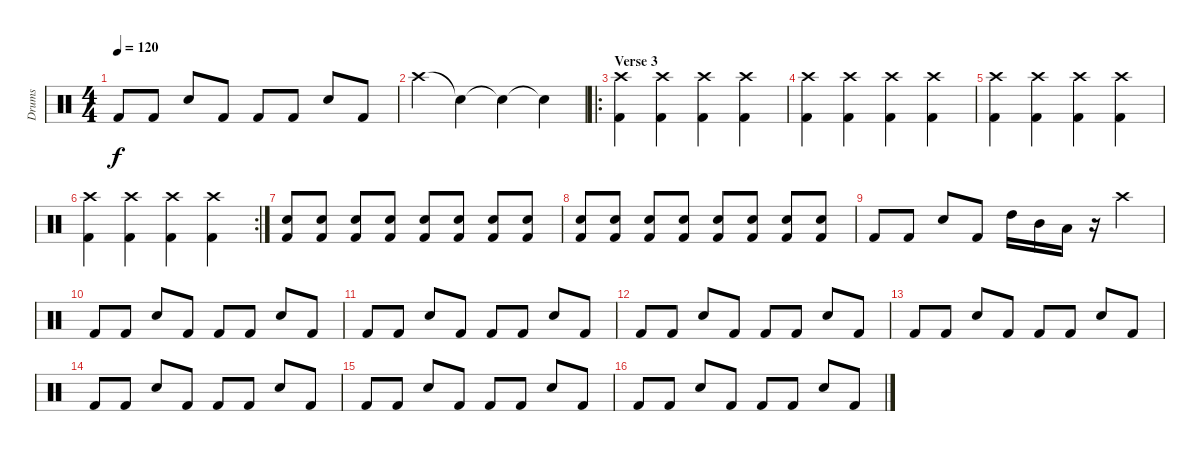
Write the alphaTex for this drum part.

\track ("Drums" "Drums") {instrument percussion}
\staff {score}
\articulation defaults
\ts (4 4)
\tempo 120
\clef neutral
\ks c "Kick (hit) 2".8{dy f} "Kick (hit) 2".8 "Snare (hit) 2".8 "Kick (hit) 2".8 "Kick (hit) 2".8 "Kick (hit) 2".8 "Snare (hit) 2".8 "Kick (hit) 2".8
|
"Crash high (hit)".4 "Snare (hit)"{t}.4 "Snare (hit)"{t}.4 "Snare (hit)"{t}.4 |
\ro
\section ("" "Verse 3")
("Kick (hit) 2" "Crash high (hit)").4 ("Kick (hit) 2" "Crash high (hit)").4 ("Kick (hit) 2" "Crash high (hit)").4 ("Kick (hit) 2" "Crash high (hit)").4 |
("Kick (hit) 2" "Crash high (hit)").4 ("Kick (hit) 2" "Crash high (hit)").4 ("Kick (hit) 2" "Crash high (hit)").4 ("Kick (hit) 2" "Crash high (hit)").4 |
("Kick (hit) 2" "Crash high (hit)").4 ("Kick (hit) 2" "Crash high (hit)").4 ("Kick (hit) 2" "Crash high (hit)").4 ("Kick (hit) 2" "Crash high (hit)").4 |
\rc 2
("Kick (hit) 2" "Crash high (hit)").4 ("Kick (hit) 2" "Crash high (hit)").4 ("Kick (hit) 2" "Crash high (hit)").4 ("Kick (hit) 2" "Crash high (hit)").4 |
("Kick (hit) 2" "Snare (hit) 2").8 ("Kick (hit) 2" "Snare (hit) 2").8 ("Kick (hit) 2" "Snare (hit) 2").8 ("Kick (hit) 2" "Snare (hit) 2").8 ("Kick (hit) 2" "Snare (hit) 2").8 ("Kick (hit) 2" "Snare (hit) 2").8 ("Kick (hit) 2" "Snare (hit) 2").8 ("Kick (hit) 2" "Snare (hit) 2").8 |
("Kick (hit) 2" "Snare (hit) 2").8 ("Kick (hit) 2" "Snare (hit) 2").8 ("Kick (hit) 2" "Snare (hit) 2").8 ("Kick (hit) 2" "Snare (hit) 2").8 ("Kick (hit) 2" "Snare (hit) 2").8 ("Kick (hit) 2" "Snare (hit) 2").8 ("Kick (hit) 2" "Snare (hit) 2").8 ("Kick (hit) 2" "Snare (hit) 2").8 |
"Kick (hit) 2".8 "Kick (hit) 2".8 "Snare (hit) 2".8 "Kick (hit) 2".8 "High Tom (hit)".16 "Mid Tom (hit)".16 "Low Tom (hit)".16 r.16 "Crash high (hit)".4 |
"Kick (hit) 2".8 "Kick (hit) 2".8 "Snare (hit) 2".8 "Kick (hit) 2".8 "Kick (hit) 2".8 "Kick (hit) 2".8 "Snare (hit) 2".8 "Kick (hit) 2".8 |
"Kick (hit) 2".8 "Kick (hit) 2".8 "Snare (hit) 2".8 "Kick (hit) 2".8 "Kick (hit) 2".8 "Kick (hit) 2".8 "Snare (hit) 2".8 "Kick (hit) 2".8 |
"Kick (hit) 2".8 "Kick (hit) 2".8 "Snare (hit) 2".8 "Kick (hit) 2".8 "Kick (hit) 2".8 "Kick (hit) 2".8 "Snare (hit) 2".8 "Kick (hit) 2".8 |
"Kick (hit) 2".8 "Kick (hit) 2".8 "Snare (hit) 2".8 "Kick (hit) 2".8 "Kick (hit) 2".8 "Kick (hit) 2".8 "Snare (hit) 2".8 "Kick (hit) 2".8 |
"Kick (hit) 2".8 "Kick (hit) 2".8 "Snare (hit) 2".8 "Kick (hit) 2".8 "Kick (hit) 2".8 "Kick (hit) 2".8 "Snare (hit) 2".8 "Kick (hit) 2".8 |
"Kick (hit) 2".8 "Kick (hit) 2".8 "Snare (hit) 2".8 "Kick (hit) 2".8 "Kick (hit) 2".8 "Kick (hit) 2".8 "Snare (hit) 2".8 "Kick (hit) 2".8 |
"Kick (hit) 2".8 "Kick (hit) 2".8 "Snare (hit) 2".8 "Kick (hit) 2".8 "Kick (hit) 2".8 "Kick (hit) 2".8 "Snare (hit) 2".8 "Kick (hit) 2".8
